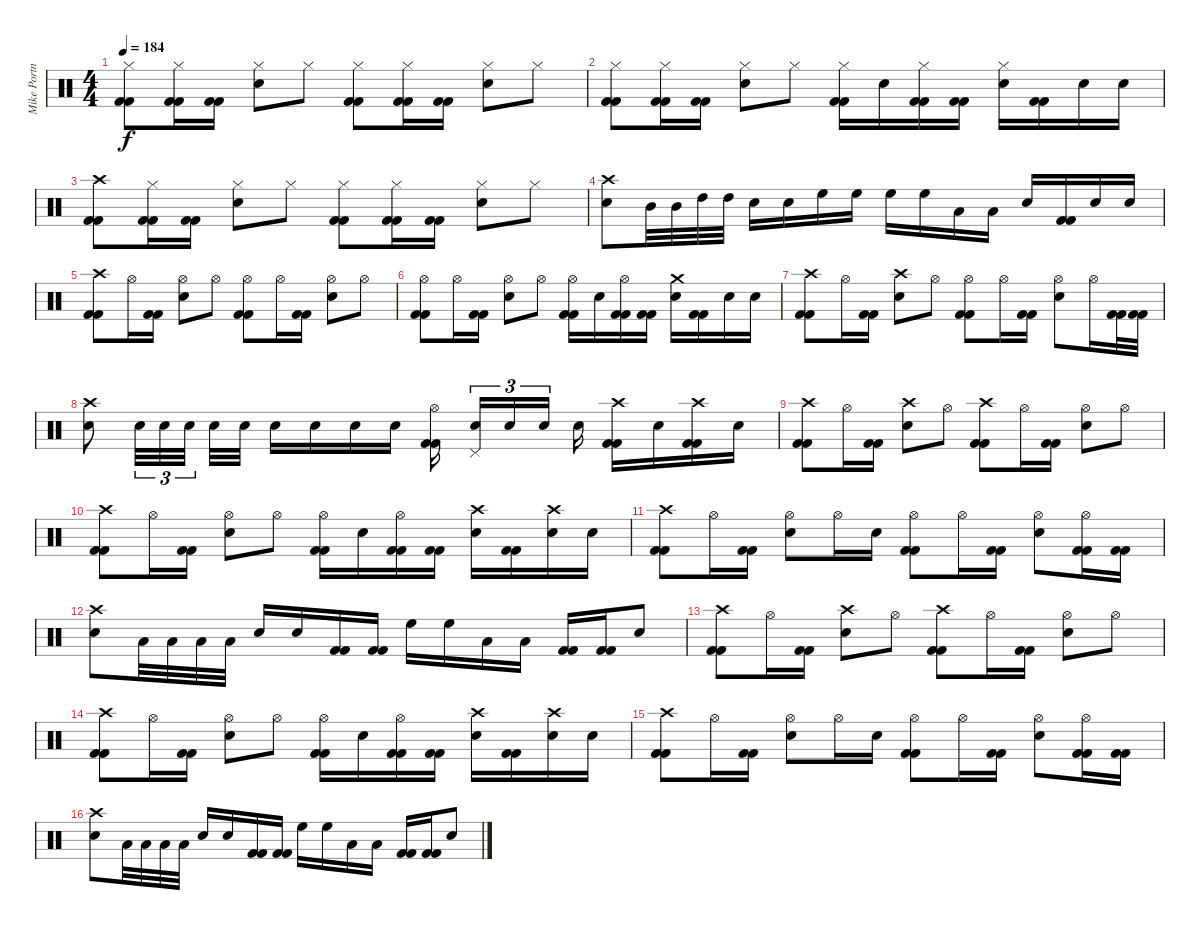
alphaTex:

\track ("Mike Portnoy - Drum" "Mike Portn") {instrument percussion}
\staff {score}
\articulation defaults
\ts (4 4)
\tempo 184
\clef neutral
\ks c
("Hi-Hat (closed)" "Kick (hit) 2" "Kick (hit) 2").8{dy f} ("Hi-Hat (closed)" "Kick (hit) 2" "Kick (hit) 2").16 ("Kick (hit) 2" "Kick (hit) 2").16 ("Hi-Hat (closed)" "Snare (hit) 2").8 "Hi-Hat (closed)".8 ("Hi-Hat (closed)" "Kick (hit) 2" "Kick (hit) 2").8 ("Hi-Hat (closed)" "Kick (hit) 2" "Kick (hit) 2").16 ("Kick (hit) 2" "Kick (hit) 2").16 ("Hi-Hat (closed)" "Snare (hit) 2").8 "Hi-Hat (closed)".8 |
("Hi-Hat (closed)" "Kick (hit) 2" "Kick (hit) 2").8 ("Hi-Hat (closed)" "Kick (hit) 2" "Kick (hit) 2").16 ("Kick (hit) 2" "Kick (hit) 2").16 ("Hi-Hat (closed)" "Snare (hit) 2").8 "Hi-Hat (closed)".8 ("Hi-Hat (closed)" "Kick (hit) 2" "Kick (hit) 2").16 "Snare (hit) 2".16 ("Hi-Hat (closed)" "Kick (hit) 2" "Kick (hit) 2").16 ("Kick (hit) 2" "Kick (hit) 2").16 ("Hi-Hat (closed)" "Snare (hit) 2").16 ("Kick (hit) 2" "Kick (hit) 2").16 "Snare (hit) 2".16 "Snare (hit) 2".16 |
("Crash high (hit)" "Kick (hit) 2" "Kick (hit) 2").8 ("Hi-Hat (closed)" "Kick (hit) 2" "Kick (hit) 2").16 ("Kick (hit) 2" "Kick (hit) 2").16 ("Hi-Hat (closed)" "Snare (hit) 2").8 "Hi-Hat (closed)".8 ("Hi-Hat (closed)" "Kick (hit) 2" "Kick (hit) 2").8 ("Hi-Hat (closed)" "Kick (hit) 2" "Kick (hit) 2").16 ("Kick (hit) 2" "Kick (hit) 2").16 ("Hi-Hat (closed)" "Snare (hit) 2").8 "Hi-Hat (closed)".8 |
("Crash high (hit)" "Snare (hit) 2").8 "Mid Tom (hit)".32 "Mid Tom (hit)".32 "High Tom (hit)".32 "High Tom (hit)".32 "Snare (hit) 2".16 "Snare (hit) 2".16 "High Floor Tom (hit)".16 "High Floor Tom (hit)".16 "High Floor Tom (hit)".16 "High Floor Tom (hit)".16 "Low Floor Tom (hit)".16 "Low Floor Tom (hit)".16 "Snare (hit) 2".16 ("Kick (hit) 2" "Kick (hit) 2").16 "Snare (hit) 2".16 "Snare (hit) 2".16 |
("Crash high (hit)" "Kick (hit) 2" "Kick (hit) 2").8 "Hi-Hat (open)".16 ("Kick (hit) 2" "Kick (hit) 2").16 ("Hi-Hat (open)" "Snare (hit) 2").8 "Hi-Hat (open)".8 ("Hi-Hat (open)" "Kick (hit) 2" "Kick (hit) 2").8 "Hi-Hat (open)".16 ("Kick (hit) 2" "Kick (hit) 2").16 ("Hi-Hat (open)" "Snare (hit) 2").8 "Hi-Hat (open)".8 |
("Hi-Hat (open)" "Kick (hit) 2" "Kick (hit) 2").8 "Hi-Hat (open)".16 ("Kick (hit) 2" "Kick (hit) 2").16 ("Hi-Hat (open)" "Snare (hit) 2").8 "Hi-Hat (open)".8 ("Hi-Hat (open)" "Kick (hit) 2" "Kick (hit) 2").16 "Snare (hit) 2".16 ("Hi-Hat (open)" "Kick (hit) 2" "Kick (hit) 2").16 ("Kick (hit) 2" "Kick (hit) 2").16 ("Crash medium (hit)" "Snare (hit) 2").16 ("Kick (hit) 2" "Kick (hit) 2").16 "Snare (hit) 2".16 "Snare (hit) 2".16 |
("Crash high (hit)" "Kick (hit) 2" "Kick (hit) 2").8 "Hi-Hat (open)".16 ("Kick (hit) 2" "Kick (hit) 2").16 ("Crash high (hit)" "Snare (hit) 2").8 "Hi-Hat (open)".8 ("Hi-Hat (open)" "Kick (hit) 2" "Kick (hit) 2").8 "Hi-Hat (open)".16 ("Kick (hit) 2" "Kick (hit) 2").16 ("Hi-Hat (open)" "Snare (hit) 2").8 "Hi-Hat (open)".16 ("Kick (hit) 2" "Kick (hit) 2").32 ("Kick (hit) 2" "Kick (hit) 2").32 |
("Crash high (hit)" "Snare (hit) 2").8 "Snare (hit) 2".32{tu (3 2)} "Snare (hit) 2".32{tu (3 2)} "Snare (hit) 2".32{tu (3 2)} "Snare (hit) 2".32 "Snare (hit) 2".32 "Snare (hit) 2".16 "Snare (hit) 2".16 "Snare (hit) 2".16 "Snare (hit) 2".16 ("Hi-Hat (open)" "Kick (hit) 2" "Kick (hit) 2").16 ("Snare (hit) 2" "Pedal Hi-Hat (hit)").16{tu (3 2)} "Snare (hit) 2".16{tu (3 2)} "Snare (hit) 2".16{tu (3 2)} "Snare (hit) 2".16 ("Crash high (hit)" "Kick (hit) 2" "Kick (hit) 2").16 "Snare (hit) 2".16 ("Crash high (hit)" "Kick (hit) 2" "Kick (hit) 2").16 "Snare (hit) 2".16 |
("Crash high (hit)" "Kick (hit) 2" "Kick (hit) 2").8 "Hi-Hat (open)".16 ("Kick (hit) 2" "Kick (hit) 2").16 ("Crash high (hit)" "Snare (hit) 2").8 "Hi-Hat (open)".8 ("Crash high (hit)" "Kick (hit) 2" "Kick (hit) 2").8 "Hi-Hat (open)".16 ("Kick (hit) 2" "Kick (hit) 2").16 ("Hi-Hat (open)" "Snare (hit) 2").8 "Hi-Hat (open)".8 |
("Crash high (hit)" "Kick (hit) 2" "Kick (hit) 2").8 "Hi-Hat (open)".16 ("Kick (hit) 2" "Kick (hit) 2").16 ("Hi-Hat (open)" "Snare (hit) 2").8 "Hi-Hat (open)".8 ("Hi-Hat (open)" "Kick (hit) 2" "Kick (hit) 2").16 "Snare (hit) 2".16 ("Hi-Hat (open)" "Kick (hit) 2" "Kick (hit) 2").16 ("Kick (hit) 2" "Kick (hit) 2").16 ("Crash high (hit)" "Snare (hit) 2").16 ("Kick (hit) 2" "Kick (hit) 2").16 ("Crash high (hit)" "Snare (hit) 2").16 "Snare (hit) 2".16 |
("Crash high (hit)" "Kick (hit) 2" "Kick (hit) 2").8 "Hi-Hat (open)".16 ("Kick (hit) 2" "Kick (hit) 2").16 ("Hi-Hat (open)" "Snare (hit) 2").8 "Hi-Hat (open)".16 "Snare (hit) 2".16 ("Hi-Hat (open)" "Kick (hit) 2" "Kick (hit) 2").8 "Hi-Hat (open)".16 ("Kick (hit) 2" "Kick (hit) 2").16 ("Hi-Hat (open)" "Snare (hit) 2").8 ("Hi-Hat (open)" "Kick (hit) 2" "Kick (hit) 2").16 ("Kick (hit) 2" "Kick (hit) 2").16 |
("Crash high (hit)" "Snare (hit) 2").8 "Low Floor Tom (hit)".32 "Low Floor Tom (hit)".32 "Low Floor Tom (hit)".32 "Low Floor Tom (hit)".32 "Snare (hit) 2".16 "Snare (hit) 2".16 ("Kick (hit) 2" "Kick (hit) 2").16 ("Kick (hit) 2" "Kick (hit) 2").16 "High Floor Tom (hit)".16 "High Floor Tom (hit)".16 "Low Floor Tom (hit)".16 "Low Floor Tom (hit)".16 ("Kick (hit) 2" "Kick (hit) 2").16 ("Kick (hit) 2" "Kick (hit) 2").16 "Snare (hit) 2".8 |
("Crash high (hit)" "Kick (hit) 2" "Kick (hit) 2").8 "Hi-Hat (open)".16 ("Kick (hit) 2" "Kick (hit) 2").16 ("Crash high (hit)" "Snare (hit) 2").8 "Hi-Hat (open)".8 ("Crash high (hit)" "Kick (hit) 2" "Kick (hit) 2").8 "Hi-Hat (open)".16 ("Kick (hit) 2" "Kick (hit) 2").16 ("Hi-Hat (open)" "Snare (hit) 2").8 "Hi-Hat (open)".8 |
("Crash high (hit)" "Kick (hit) 2" "Kick (hit) 2").8 "Hi-Hat (open)".16 ("Kick (hit) 2" "Kick (hit) 2").16 ("Hi-Hat (open)" "Snare (hit) 2").8 "Hi-Hat (open)".8 ("Hi-Hat (open)" "Kick (hit) 2" "Kick (hit) 2").16 "Snare (hit) 2".16 ("Hi-Hat (open)" "Kick (hit) 2" "Kick (hit) 2").16 ("Kick (hit) 2" "Kick (hit) 2").16 ("Crash high (hit)" "Snare (hit) 2").16 ("Kick (hit) 2" "Kick (hit) 2").16 ("Crash high (hit)" "Snare (hit) 2").16 "Snare (hit) 2".16 |
("Crash high (hit)" "Kick (hit) 2" "Kick (hit) 2").8 "Hi-Hat (open)".16 ("Kick (hit) 2" "Kick (hit) 2").16 ("Hi-Hat (open)" "Snare (hit) 2").8 "Hi-Hat (open)".16 "Snare (hit) 2".16 ("Hi-Hat (open)" "Kick (hit) 2" "Kick (hit) 2").8 "Hi-Hat (open)".16 ("Kick (hit) 2" "Kick (hit) 2").16 ("Hi-Hat (open)" "Snare (hit) 2").8 ("Hi-Hat (open)" "Kick (hit) 2" "Kick (hit) 2").16 ("Kick (hit) 2" "Kick (hit) 2").16 |
("Crash high (hit)" "Snare (hit) 2").8 "Low Floor Tom (hit)".32 "Low Floor Tom (hit)".32 "Low Floor Tom (hit)".32 "Low Floor Tom (hit)".32 "Snare (hit) 2".16 "Snare (hit) 2".16 ("Kick (hit) 2" "Kick (hit) 2").16 ("Kick (hit) 2" "Kick (hit) 2").16 "High Floor Tom (hit)".16 "High Floor Tom (hit)".16 "Low Floor Tom (hit)".16 "Low Floor Tom (hit)".16 ("Kick (hit) 2" "Kick (hit) 2").16 ("Kick (hit) 2" "Kick (hit) 2").16 "Snare (hit) 2".8
